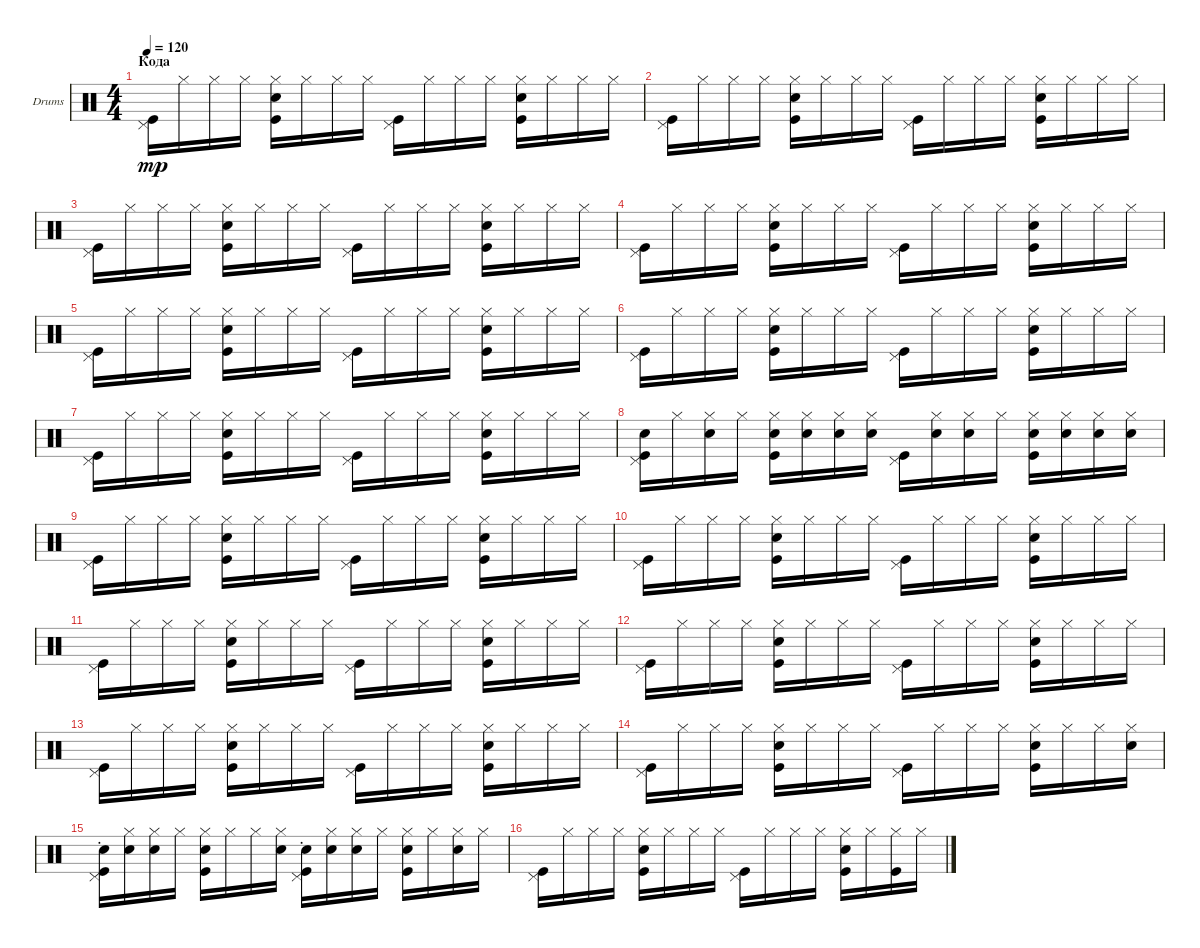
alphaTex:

\bracketExtendMode groupsimilarinstruments
\firstSystemTrackNameOrientation horizontal
\otherSystemsTrackNameOrientation horizontal
\track ("Ударные" "Drums") {instrument percussion}
\staff {score}
\articulation defaults
\ts (4 4)
\section ("" "Кода")
\tempo 120
\clef neutral
\ks c
("Pedal Hi-Hat (hit)" "Kick (hit)").16{dy mp} "Hi-Hat (closed)".16 "Hi-Hat (closed)".16 "Hi-Hat (closed)".16 ("Hi-Hat (closed)" "Snare (hit) 2" "Kick (hit)").16 "Hi-Hat (closed)".16 "Hi-Hat (closed)".16 "Hi-Hat (closed)".16 ("Pedal Hi-Hat (hit)" "Kick (hit)").16 "Hi-Hat (closed)".16 "Hi-Hat (closed)".16 "Hi-Hat (closed)".16 ("Hi-Hat (closed)" "Snare (hit) 2" "Kick (hit)").16 "Hi-Hat (closed)".16 "Hi-Hat (closed)".16 "Hi-Hat (closed)".16 |
("Pedal Hi-Hat (hit)" "Kick (hit)").16 "Hi-Hat (closed)".16 "Hi-Hat (closed)".16 "Hi-Hat (closed)".16 ("Hi-Hat (closed)" "Snare (hit) 2" "Kick (hit)").16 "Hi-Hat (closed)".16 "Hi-Hat (closed)".16 "Hi-Hat (closed)".16 ("Pedal Hi-Hat (hit)" "Kick (hit)").16 "Hi-Hat (closed)".16 "Hi-Hat (closed)".16 "Hi-Hat (closed)".16 ("Hi-Hat (closed)" "Snare (hit) 2" "Kick (hit)").16 "Hi-Hat (closed)".16 "Hi-Hat (closed)".16 "Hi-Hat (closed)".16 |
("Pedal Hi-Hat (hit)" "Kick (hit)").16 "Hi-Hat (closed)".16 "Hi-Hat (closed)".16 "Hi-Hat (closed)".16 ("Hi-Hat (closed)" "Snare (hit) 2" "Kick (hit)").16 "Hi-Hat (closed)".16 "Hi-Hat (closed)".16 "Hi-Hat (closed)".16 ("Pedal Hi-Hat (hit)" "Kick (hit)").16 "Hi-Hat (closed)".16 "Hi-Hat (closed)".16 "Hi-Hat (closed)".16 ("Hi-Hat (closed)" "Snare (hit) 2" "Kick (hit)").16 "Hi-Hat (closed)".16 "Hi-Hat (closed)".16 "Hi-Hat (closed)".16 |
("Pedal Hi-Hat (hit)" "Kick (hit)").16 "Hi-Hat (closed)".16 "Hi-Hat (closed)".16 "Hi-Hat (closed)".16 ("Hi-Hat (closed)" "Snare (hit) 2" "Kick (hit)").16 "Hi-Hat (closed)".16 "Hi-Hat (closed)".16 "Hi-Hat (closed)".16 ("Pedal Hi-Hat (hit)" "Kick (hit)").16 "Hi-Hat (closed)".16 "Hi-Hat (closed)".16 "Hi-Hat (closed)".16 ("Hi-Hat (closed)" "Snare (hit) 2" "Kick (hit)").16 "Hi-Hat (closed)".16 "Hi-Hat (closed)".16 "Hi-Hat (closed)".16 |
("Pedal Hi-Hat (hit)" "Kick (hit)").16 "Hi-Hat (closed)".16 "Hi-Hat (closed)".16 "Hi-Hat (closed)".16 ("Hi-Hat (closed)" "Snare (hit) 2" "Kick (hit)").16 "Hi-Hat (closed)".16 "Hi-Hat (closed)".16 "Hi-Hat (closed)".16 ("Pedal Hi-Hat (hit)" "Kick (hit)").16 "Hi-Hat (closed)".16 "Hi-Hat (closed)".16 "Hi-Hat (closed)".16 ("Hi-Hat (closed)" "Snare (hit) 2" "Kick (hit)").16 "Hi-Hat (closed)".16 "Hi-Hat (closed)".16 "Hi-Hat (closed)".16 |
("Pedal Hi-Hat (hit)" "Kick (hit)").16 "Hi-Hat (closed)".16 "Hi-Hat (closed)".16 "Hi-Hat (closed)".16 ("Hi-Hat (closed)" "Snare (hit) 2" "Kick (hit)").16 "Hi-Hat (closed)".16 "Hi-Hat (closed)".16 "Hi-Hat (closed)".16 ("Pedal Hi-Hat (hit)" "Kick (hit)").16 "Hi-Hat (closed)".16 "Hi-Hat (closed)".16 "Hi-Hat (closed)".16 ("Hi-Hat (closed)" "Snare (hit) 2" "Kick (hit)").16 "Hi-Hat (closed)".16 "Hi-Hat (closed)".16 "Hi-Hat (closed)".16 |
("Pedal Hi-Hat (hit)" "Kick (hit)").16 "Hi-Hat (closed)".16 "Hi-Hat (closed)".16 "Hi-Hat (closed)".16 ("Hi-Hat (closed)" "Snare (hit) 2" "Kick (hit)").16 "Hi-Hat (closed)".16 "Hi-Hat (closed)".16 "Hi-Hat (closed)".16 ("Pedal Hi-Hat (hit)" "Kick (hit)").16 "Hi-Hat (closed)".16 "Hi-Hat (closed)".16 "Hi-Hat (closed)".16 ("Hi-Hat (closed)" "Snare (hit) 2" "Kick (hit)").16 "Hi-Hat (closed)".16 "Hi-Hat (closed)".16 "Hi-Hat (closed)".16 |
("Pedal Hi-Hat (hit)" "Snare (hit) 2" "Kick (hit)").16 "Hi-Hat (closed)".16 ("Hi-Hat (closed)" "Snare (hit) 2").16 "Hi-Hat (closed)".16 ("Hi-Hat (closed)" "Snare (hit) 2" "Kick (hit)").16 ("Hi-Hat (closed)" "Snare (hit) 2").16 ("Hi-Hat (closed)" "Snare (hit) 2").16 ("Hi-Hat (closed)" "Snare (hit) 2").16 ("Pedal Hi-Hat (hit)" "Kick (hit)").16 ("Hi-Hat (closed)" "Snare (hit) 2").16 ("Hi-Hat (closed)" "Snare (hit) 2").16 "Hi-Hat (closed)".16 ("Hi-Hat (closed)" "Snare (hit) 2" "Kick (hit)").16 ("Hi-Hat (closed)" "Snare (hit) 2").16 ("Hi-Hat (closed)" "Snare (hit) 2").16 ("Hi-Hat (closed)" "Snare (hit) 2").16 |
("Pedal Hi-Hat (hit)" "Kick (hit)").16 "Hi-Hat (closed)".16 "Hi-Hat (closed)".16 "Hi-Hat (closed)".16 ("Hi-Hat (closed)" "Snare (hit) 2" "Kick (hit)").16 "Hi-Hat (closed)".16 "Hi-Hat (closed)".16 "Hi-Hat (closed)".16 ("Pedal Hi-Hat (hit)" "Kick (hit)").16 "Hi-Hat (closed)".16 "Hi-Hat (closed)".16 "Hi-Hat (closed)".16 ("Hi-Hat (closed)" "Snare (hit) 2" "Kick (hit)").16 "Hi-Hat (closed)".16 "Hi-Hat (closed)".16 "Hi-Hat (closed)".16 |
("Pedal Hi-Hat (hit)" "Kick (hit)").16 "Hi-Hat (closed)".16 "Hi-Hat (closed)".16 "Hi-Hat (closed)".16 ("Hi-Hat (closed)" "Snare (hit) 2" "Kick (hit)").16 "Hi-Hat (closed)".16 "Hi-Hat (closed)".16 "Hi-Hat (closed)".16 ("Pedal Hi-Hat (hit)" "Kick (hit)").16 "Hi-Hat (closed)".16 "Hi-Hat (closed)".16 "Hi-Hat (closed)".16 ("Hi-Hat (closed)" "Snare (hit) 2" "Kick (hit)").16 "Hi-Hat (closed)".16 "Hi-Hat (closed)".16 "Hi-Hat (closed)".16 |
("Pedal Hi-Hat (hit)" "Kick (hit)").16 "Hi-Hat (closed)".16 "Hi-Hat (closed)".16 "Hi-Hat (closed)".16 ("Hi-Hat (closed)" "Snare (hit) 2" "Kick (hit)").16 "Hi-Hat (closed)".16 "Hi-Hat (closed)".16 "Hi-Hat (closed)".16 ("Pedal Hi-Hat (hit)" "Kick (hit)").16 "Hi-Hat (closed)".16 "Hi-Hat (closed)".16 "Hi-Hat (closed)".16 ("Hi-Hat (closed)" "Snare (hit) 2" "Kick (hit)").16 "Hi-Hat (closed)".16 "Hi-Hat (closed)".16 "Hi-Hat (closed)".16 |
("Pedal Hi-Hat (hit)" "Kick (hit)").16 "Hi-Hat (closed)".16 "Hi-Hat (closed)".16 "Hi-Hat (closed)".16 ("Hi-Hat (closed)" "Snare (hit) 2" "Kick (hit)").16 "Hi-Hat (closed)".16 "Hi-Hat (closed)".16 "Hi-Hat (closed)".16 ("Pedal Hi-Hat (hit)" "Kick (hit)").16 "Hi-Hat (closed)".16 "Hi-Hat (closed)".16 "Hi-Hat (closed)".16 ("Hi-Hat (closed)" "Snare (hit) 2" "Kick (hit)").16 "Hi-Hat (closed)".16 "Hi-Hat (closed)".16 "Hi-Hat (closed)".16 |
("Pedal Hi-Hat (hit)" "Kick (hit)").16 "Hi-Hat (closed)".16 "Hi-Hat (closed)".16 "Hi-Hat (closed)".16 ("Hi-Hat (closed)" "Snare (hit) 2" "Kick (hit)").16 "Hi-Hat (closed)".16 "Hi-Hat (closed)".16 "Hi-Hat (closed)".16 ("Pedal Hi-Hat (hit)" "Kick (hit)").16 "Hi-Hat (closed)".16 "Hi-Hat (closed)".16 "Hi-Hat (closed)".16 ("Hi-Hat (closed)" "Snare (hit) 2" "Kick (hit)").16 "Hi-Hat (closed)".16 "Hi-Hat (closed)".16 "Hi-Hat (closed)".16 |
("Pedal Hi-Hat (hit)" "Kick (hit)").16 "Hi-Hat (closed)".16 "Hi-Hat (closed)".16 "Hi-Hat (closed)".16 ("Hi-Hat (closed)" "Snare (hit) 2" "Kick (hit)").16 "Hi-Hat (closed)".16 "Hi-Hat (closed)".16 "Hi-Hat (closed)".16 ("Pedal Hi-Hat (hit)" "Kick (hit)").16 "Hi-Hat (closed)".16 "Hi-Hat (closed)".16 "Hi-Hat (closed)".16 ("Hi-Hat (closed)" "Snare (hit) 2" "Kick (hit)").16 "Hi-Hat (closed)".16 "Hi-Hat (closed)".16 ("Hi-Hat (closed)" "Snare (hit) 2").16 |
("Pedal Hi-Hat (hit)" "Snare (hit) 2"{st} "Kick (hit)").16 ("Hi-Hat (closed)" "Snare (hit) 2").16 ("Hi-Hat (closed)" "Snare (hit) 2").16 "Hi-Hat (closed)".16 ("Hi-Hat (closed)" "Snare (hit) 2" "Kick (hit)").16 "Hi-Hat (closed)".16 "Hi-Hat (closed)".16 ("Hi-Hat (closed)" "Snare (hit) 2").16 ("Pedal Hi-Hat (hit)" "Snare (hit) 2"{st} "Kick (hit)").16 ("Hi-Hat (closed)" "Snare (hit) 2").16 ("Hi-Hat (closed)" "Snare (hit) 2").16 "Hi-Hat (closed)".16 ("Hi-Hat (closed)" "Snare (hit) 2" "Kick (hit)").16 "Hi-Hat (closed)".16 ("Hi-Hat (closed)" "Snare (hit) 2").16 "Hi-Hat (closed)".16 |
("Pedal Hi-Hat (hit)" "Kick (hit)").16 "Hi-Hat (closed)".16 "Hi-Hat (closed)".16 "Hi-Hat (closed)".16 ("Hi-Hat (closed)" "Snare (hit) 2" "Kick (hit)").16 "Hi-Hat (closed)".16 "Hi-Hat (closed)".16 "Hi-Hat (closed)".16 ("Pedal Hi-Hat (hit)" "Kick (hit)").16 "Hi-Hat (closed)".16 "Hi-Hat (closed)".16 "Hi-Hat (closed)".16 ("Hi-Hat (closed)" "Snare (hit) 2" "Kick (hit)").16 "Hi-Hat (closed)".16 ("Hi-Hat (closed)" "Kick (hit)").16 "Hi-Hat (closed)".16
